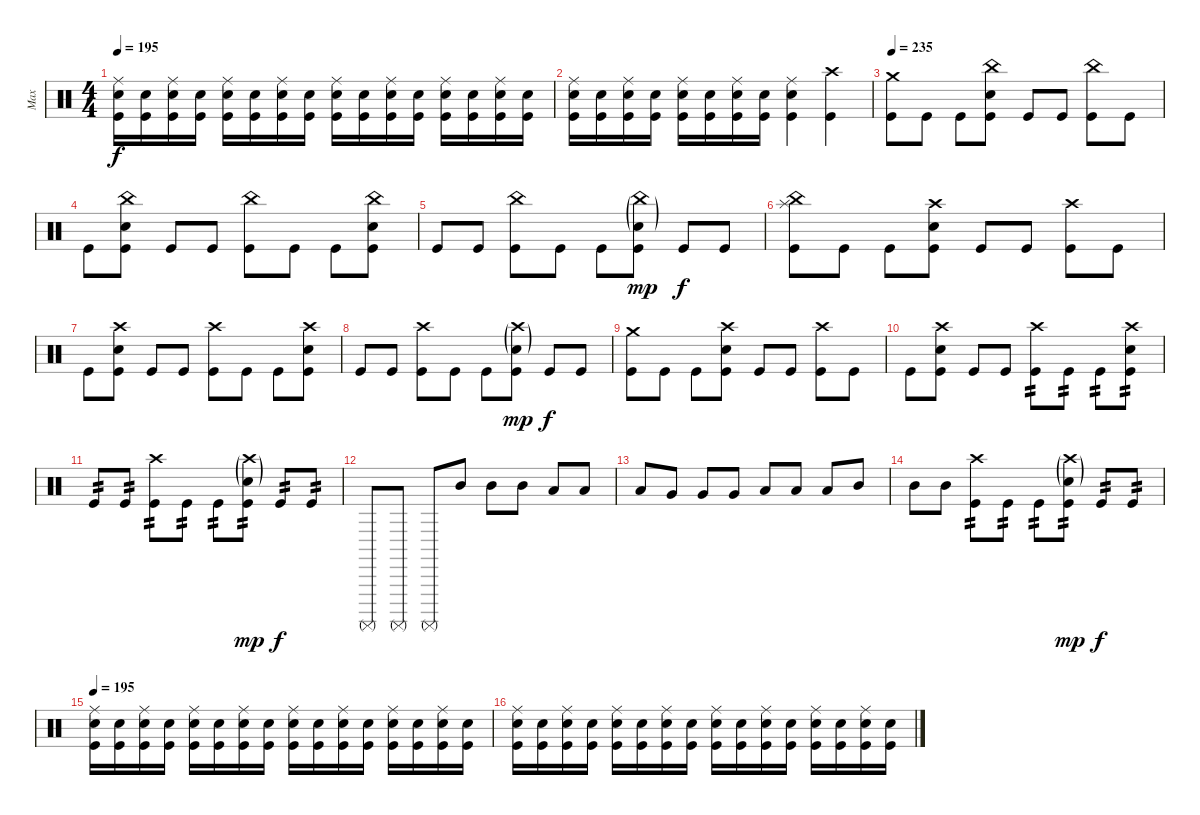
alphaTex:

\track ("Max" "Max") {instrument percussion}
\staff {score}
\articulation defaults
\ts (4 4)
\tempo 195
\clef neutral
\ks c
("Ride (middle)" "Electric Snare (hit)" "Kick (hit)").16{dy f} ("Electric Snare (hit)" "Kick (hit)").16 ("Ride (middle)" "Electric Snare (hit)" "Kick (hit)").16 ("Electric Snare (hit)" "Kick (hit)").16 ("Ride (middle)" "Electric Snare (hit)" "Kick (hit)").16 ("Electric Snare (hit)" "Kick (hit)").16 ("Ride (middle)" "Electric Snare (hit)" "Kick (hit)").16 ("Electric Snare (hit)" "Kick (hit)").16 ("Ride (middle)" "Electric Snare (hit)" "Kick (hit)").16 ("Electric Snare (hit)" "Kick (hit)").16 ("Ride (middle)" "Electric Snare (hit)" "Kick (hit)").16 ("Electric Snare (hit)" "Kick (hit)").16 ("Ride (middle)" "Electric Snare (hit)" "Kick (hit)").16 ("Electric Snare (hit)" "Kick (hit)").16 ("Ride (middle)" "Electric Snare (hit)" "Kick (hit)").16 ("Electric Snare (hit)" "Kick (hit)").16 |
("Ride (middle)" "Electric Snare (hit)" "Kick (hit)").16 ("Electric Snare (hit)" "Kick (hit)").16 ("Ride (middle)" "Electric Snare (hit)" "Kick (hit)").16 ("Electric Snare (hit)" "Kick (hit)").16 ("Ride (middle)" "Electric Snare (hit)" "Kick (hit)").16 ("Electric Snare (hit)" "Kick (hit)").16 ("Ride (middle)" "Electric Snare (hit)" "Kick (hit)").16 ("Electric Snare (hit)" "Kick (hit)").16 ("Ride (middle)" "Electric Snare (hit)" "Kick (hit)").4 ("Crash high (hit)" "Kick (hit)").4 |
\tempo 235
("Crash medium (hit)" "Kick (hit)").8 "Kick (hit)".8 "Kick (hit)".8 ("China (hit)" "Electric Snare (hit)" "Kick (hit)").8 "Kick (hit)".8 "Kick (hit)".8 ("China (hit)" "Kick (hit)").8 "Kick (hit)".8 |
"Kick (hit)".8 ("China (hit)" "Electric Snare (hit)" "Kick (hit)").8 "Kick (hit)".8 "Kick (hit)".8 ("China (hit)" "Kick (hit)").8 "Kick (hit)".8 "Kick (hit)".8 ("China (hit)" "Electric Snare (hit)" "Kick (hit)").8 |
"Kick (hit)".8 "Kick (hit)".8 ("China (hit)" "Kick (hit)").8 "Kick (hit)".8 "Kick (hit)".8 ("China (hit)"{g} "Electric Snare (hit)"{g} "Kick (hit)").8{dy mp} "Kick (hit)".8{dy f} "Kick (hit)".8 |
("Splash (hit)" "China (hit)" "Kick (hit)").8 "Kick (hit)".8 "Kick (hit)".8 ("Crash high (hit)" "Electric Snare (hit)" "Kick (hit)").8 "Kick (hit)".8 "Kick (hit)".8 ("Crash high (hit)" "Kick (hit)").8 "Kick (hit)".8 |
"Kick (hit)".8 ("Crash high (hit)" "Electric Snare (hit)" "Kick (hit)").8 "Kick (hit)".8 "Kick (hit)".8 ("Crash high (hit)" "Kick (hit)").8 "Kick (hit)".8 "Kick (hit)".8 ("Crash high (hit)" "Electric Snare (hit)" "Kick (hit)").8 |
"Kick (hit)".8 "Kick (hit)".8 ("Crash high (hit)" "Kick (hit)").8 "Kick (hit)".8 "Kick (hit)".8 ("Crash high (hit)"{g} "Electric Snare (hit)"{g} "Kick (hit)").8{dy mp} "Kick (hit)".8{dy f} "Kick (hit)".8 |
("Crash medium (hit)" "Kick (hit)").8 "Kick (hit)".8 "Kick (hit)".8 ("Crash high (hit)" "Electric Snare (hit)" "Kick (hit)").8 "Kick (hit)".8 "Kick (hit)".8 ("Crash high (hit)" "Kick (hit)").8 "Kick (hit)".8 |
"Kick (hit)".8 ("Crash high (hit)" "Electric Snare (hit)" "Kick (hit)").8 "Kick (hit)".8 "Kick (hit)".8 ("Crash high (hit)" "Kick (hit)").8{tp 2} "Kick (hit)".8{tp 2} "Kick (hit)".8{tp 2} ("Crash high (hit)" "Electric Snare (hit)" "Kick (hit)").8{tp 2} |
"Kick (hit)".8{tp 2} "Kick (hit)".8{tp 2} ("Crash high (hit)" "Kick (hit)").8{tp 2} "Kick (hit)".8{tp 2} "Kick (hit)".8{tp 2} ("Crash high (hit)"{g} "Electric Snare (hit)"{g} "Kick (hit)").8{tp 2 dy mp} "Kick (hit)".8{tp 2 dy f} "Kick (hit)".8{tp 2} |
"Surdo (mute)".8 "Surdo (mute)".8 "Surdo (mute)".8 "Mid Tom (hit)".8 "Mid Tom (hit)".8 "Mid Tom (hit)".8 "Low Tom (hit)".8 "Low Tom (hit)".8 |
"Low Tom (hit)".8 "Very Low Tom (hit)".8 "Very Low Tom (hit)".8 "Very Low Tom (hit)".8 "Low Tom (hit)".8 "Low Tom (hit)".8 "Low Tom (hit)".8 "Mid Tom (hit)".8 |
"Mid Tom (hit)".8 "Mid Tom (hit)".8 ("Crash high (hit)" "Kick (hit)").8{tp 2} "Kick (hit)".8{tp 2} "Kick (hit)".8{tp 2} ("Crash high (hit)"{g} "Electric Snare (hit)"{g} "Kick (hit)").8{tp 2 dy mp} "Kick (hit)".8{tp 2 dy f} "Kick (hit)".8{tp 2} |
\tempo 195
("Ride (middle)" "Electric Snare (hit)" "Kick (hit)").16 ("Electric Snare (hit)" "Kick (hit)").16 ("Ride (middle)" "Electric Snare (hit)" "Kick (hit)").16 ("Electric Snare (hit)" "Kick (hit)").16 ("Ride (middle)" "Electric Snare (hit)" "Kick (hit)").16 ("Electric Snare (hit)" "Kick (hit)").16 ("Ride (middle)" "Electric Snare (hit)" "Kick (hit)").16 ("Electric Snare (hit)" "Kick (hit)").16 ("Ride (middle)" "Electric Snare (hit)" "Kick (hit)").16 ("Electric Snare (hit)" "Kick (hit)").16 ("Ride (middle)" "Electric Snare (hit)" "Kick (hit)").16 ("Electric Snare (hit)" "Kick (hit)").16 ("Ride (middle)" "Electric Snare (hit)" "Kick (hit)").16 ("Electric Snare (hit)" "Kick (hit)").16 ("Ride (middle)" "Electric Snare (hit)" "Kick (hit)").16 ("Electric Snare (hit)" "Kick (hit)").16 |
("Ride (middle)" "Electric Snare (hit)" "Kick (hit)").16 ("Electric Snare (hit)" "Kick (hit)").16 ("Ride (middle)" "Electric Snare (hit)" "Kick (hit)").16 ("Electric Snare (hit)" "Kick (hit)").16 ("Ride (middle)" "Electric Snare (hit)" "Kick (hit)").16 ("Electric Snare (hit)" "Kick (hit)").16 ("Ride (middle)" "Electric Snare (hit)" "Kick (hit)").16 ("Electric Snare (hit)" "Kick (hit)").16 ("Ride (middle)" "Electric Snare (hit)" "Kick (hit)").16 ("Electric Snare (hit)" "Kick (hit)").16 ("Ride (middle)" "Electric Snare (hit)" "Kick (hit)").16 ("Electric Snare (hit)" "Kick (hit)").16 ("Ride (middle)" "Electric Snare (hit)" "Kick (hit)").16 ("Electric Snare (hit)" "Kick (hit)").16 ("Ride (middle)" "Electric Snare (hit)" "Kick (hit)").16 ("Electric Snare (hit)" "Kick (hit)").16
